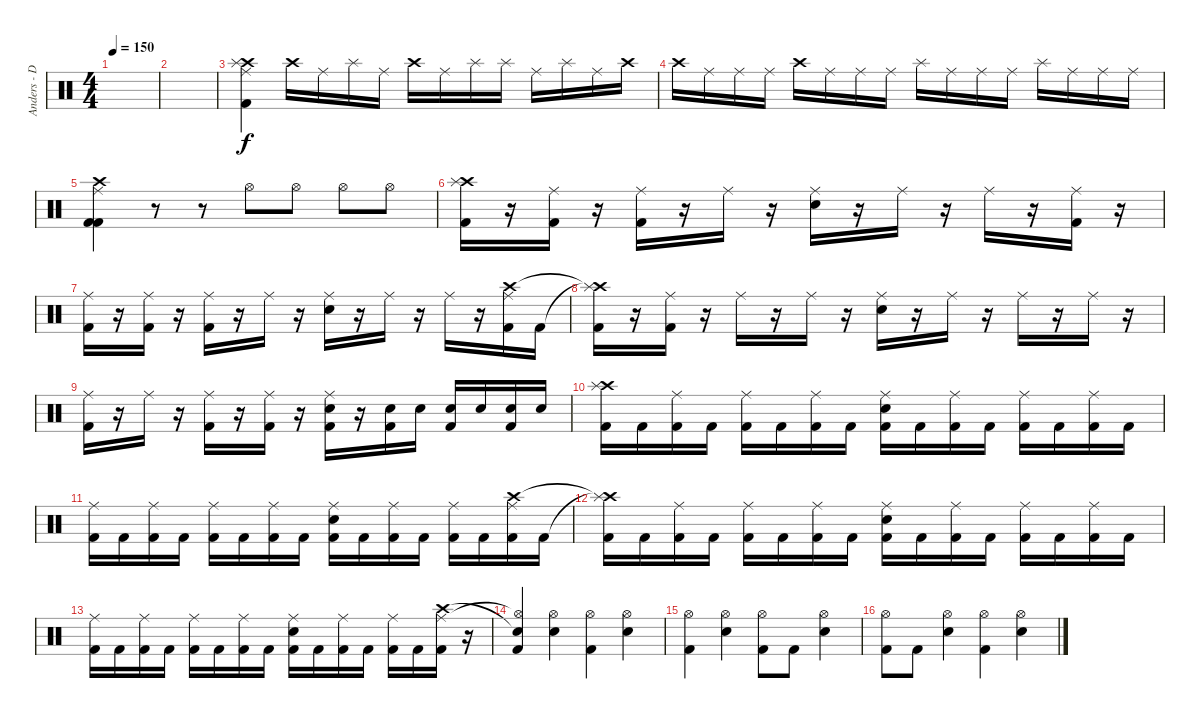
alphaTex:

\track ("Anders - Drums" "Anders - D") {instrument percussion}
\staff {score}
\articulation defaults
\ts (4 4)
\tempo 150
\clef neutral
\ks c
|
|
("Crash high (hit)" "Ride (middle)" "Splash (hit)" "Kick (hit) 2").4 "Crash high (hit)".16 "Ride (middle)".16 "Splash (hit)".16 "Ride (middle)".16 "Crash high (hit)".16 "Ride (middle)".16 "Splash (hit)".16 "Splash (hit)".16 "Ride (middle)".16 "Splash (hit)".16 "Ride (middle)".16 "Crash high (hit)".16 |
"Crash high (hit)".16 "Ride (middle)".16 "Ride (middle)".16 "Ride (middle)".16 "Crash high (hit)".16 "Ride (middle)".16 "Ride (middle)".16 "Ride (middle)".16 "Splash (hit)".16 "Ride (middle)".16 "Ride (middle)".16 "Ride (middle)".16 "Splash (hit)".16 "Ride (middle)".16 "Ride (middle)".16 "Ride (middle)".16 |
("Crash high (hit)" "Ride (middle)" "Kick (hit) 2" "Kick (hit) 2").4 r.8 r.8 "Hi-Hat (open)".8 "Hi-Hat (open)".8 "Hi-Hat (open)".8 "Hi-Hat (open)".8 |
("Crash high (hit)" "Splash (hit)" "Kick (hit) 2").16 r.16 ("Ride (middle)" "Kick (hit) 2").16 r.16 ("Ride (middle)" "Kick (hit) 2").16 r.16 "Ride (middle)".16 r.16 ("Ride (middle)" "Snare (hit) 2").16 r.16 "Ride (middle)".16 r.16 "Ride (middle)".16 r.16 ("Ride (middle)" "Kick (hit) 2").16 r.16 |
("Ride (middle)" "Kick (hit) 2").16 r.16 ("Ride (middle)" "Kick (hit) 2").16 r.16 ("Ride (middle)" "Kick (hit) 2").16 r.16 "Ride (middle)".16 r.16 ("Ride (middle)" "Snare (hit) 2").16 r.16 "Ride (middle)".16 r.16 "Ride (middle)".16 r.16 ("Ride (middle)" "Crash high (hit)" "Kick (hit) 2").16 "Kick (hit) 2".16 |
("Crash high (hit)"{t} "Splash (hit)"{t} "Kick (hit) 2").16 r.16 ("Ride (middle)" "Kick (hit) 2").16 r.16 "Ride (middle)".16 r.16 "Ride (middle)".16 r.16 ("Ride (middle)" "Snare (hit) 2").16 r.16 "Ride (middle)".16 r.16 "Ride (middle)".16 r.16 "Ride (middle)".16 r.16 |
("Ride (middle)" "Kick (hit) 2").16 r.16 "Ride (middle)".16 r.16 ("Ride (middle)" "Kick (hit) 2").16 r.16 ("Ride (middle)" "Kick (hit) 2").16 r.16 ("Ride (middle)" "Snare (hit) 2" "Kick (hit) 2").16 r.16 ("Snare (hit) 2" "Kick (hit) 2").16 "Snare (hit) 2".16 ("Snare (hit) 2" "Kick (hit) 2").16 "Snare (hit) 2".16 ("Snare (hit) 2" "Kick (hit) 2").16 "Snare (hit) 2".16 |
("Crash high (hit)" "Splash (hit)" "Kick (hit) 2").16 "Kick (hit) 2".16 ("Ride (middle)" "Kick (hit) 2").16 "Kick (hit) 2".16 ("Ride (middle)" "Kick (hit) 2").16 "Kick (hit) 2".16 ("Ride (middle)" "Kick (hit) 2").16 "Kick (hit) 2".16 ("Ride (middle)" "Snare (hit) 2" "Kick (hit) 2").16 "Kick (hit) 2".16 ("Ride (middle)" "Kick (hit) 2").16 "Kick (hit) 2".16 ("Ride (middle)" "Kick (hit) 2").16 "Kick (hit) 2".16 ("Ride (middle)" "Kick (hit) 2").16 "Kick (hit) 2".16 |
("Ride (middle)" "Kick (hit) 2").16 "Kick (hit) 2".16 ("Ride (middle)" "Kick (hit) 2").16 "Kick (hit) 2".16 ("Ride (middle)" "Kick (hit) 2").16 "Kick (hit) 2".16 ("Ride (middle)" "Kick (hit) 2").16 "Kick (hit) 2".16 ("Ride (middle)" "Snare (hit) 2" "Kick (hit) 2").16 "Kick (hit) 2".16 ("Ride (middle)" "Kick (hit) 2").16 "Kick (hit) 2".16 ("Ride (middle)" "Kick (hit) 2").16 "Kick (hit) 2".16 ("Ride (middle)" "Crash high (hit)" "Kick (hit) 2").16 "Kick (hit) 2".16 |
("Crash high (hit)"{t} "Splash (hit)"{t} "Kick (hit) 2").16 "Kick (hit) 2".16 ("Ride (middle)" "Kick (hit) 2").16 "Kick (hit) 2".16 ("Ride (middle)" "Kick (hit) 2").16 "Kick (hit) 2".16 ("Ride (middle)" "Kick (hit) 2").16 "Kick (hit) 2".16 ("Ride (middle)" "Snare (hit) 2" "Kick (hit) 2").16 "Kick (hit) 2".16 ("Ride (middle)" "Kick (hit) 2").16 "Kick (hit) 2".16 ("Ride (middle)" "Kick (hit) 2").16 "Kick (hit) 2".16 ("Ride (middle)" "Kick (hit) 2").16 "Kick (hit) 2".16 |
("Ride (middle)" "Kick (hit) 2").16 "Kick (hit) 2".16 ("Ride (middle)" "Kick (hit) 2").16 "Kick (hit) 2".16 ("Ride (middle)" "Kick (hit) 2").16 "Kick (hit) 2".16 ("Ride (middle)" "Kick (hit) 2").16 "Kick (hit) 2".16 ("Ride (middle)" "Snare (hit) 2" "Kick (hit) 2").16 "Kick (hit) 2".16 ("Ride (middle)" "Kick (hit) 2").16 "Kick (hit) 2".16 ("Ride (middle)" "Kick (hit) 2").16 "Kick (hit) 2".16 ("Ride (middle)" "Crash high (hit)" "Kick (hit) 2").16 r.16 |
("Hi-Hat (open)"{t} "Snare (hit)"{t} "Kick (hit) 2").4 ("Hi-Hat (open)" "Snare (hit) 2").4 ("Hi-Hat (open)" "Kick (hit) 2").4 ("Hi-Hat (open)" "Snare (hit) 2").4 |
("Hi-Hat (open)" "Kick (hit) 2").4 ("Hi-Hat (open)" "Snare (hit) 2").4 ("Hi-Hat (open)" "Kick (hit) 2").8 "Kick (hit) 2".8 ("Hi-Hat (open)" "Snare (hit) 2").4 |
("Hi-Hat (open)" "Kick (hit) 2").8 "Kick (hit) 2".8 ("Hi-Hat (open)" "Snare (hit) 2").4 ("Hi-Hat (open)" "Kick (hit) 2").4 ("Hi-Hat (open)" "Snare (hit) 2").4
